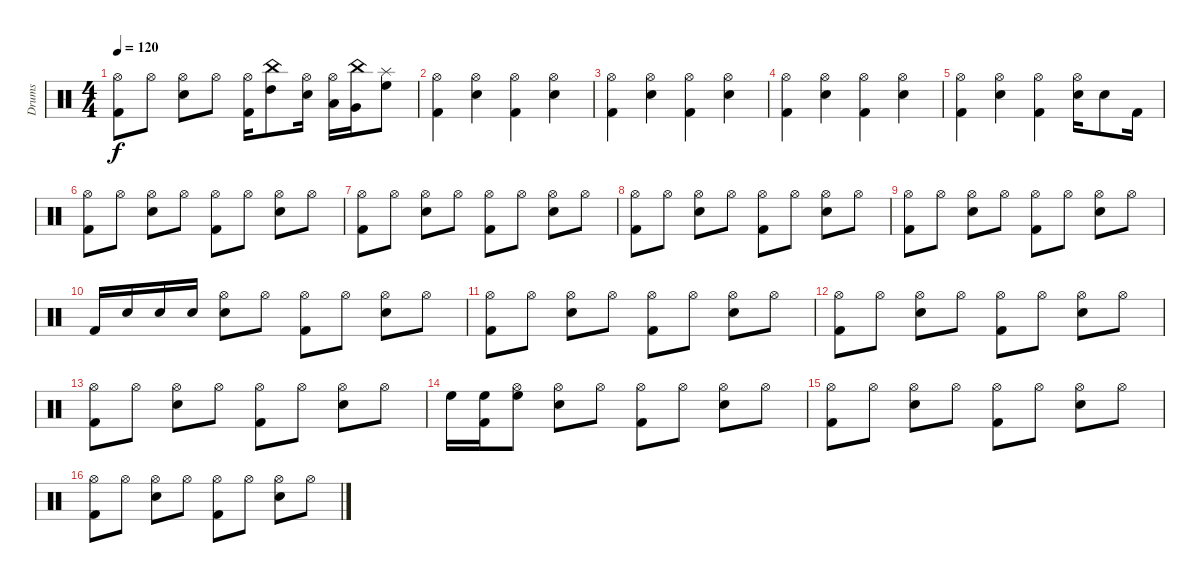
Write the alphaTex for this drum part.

\track ("Drums" "Drums") {instrument percussion}
\staff {score}
\articulation defaults
\ts (4 4)
\tempo 120
\clef neutral
\ks c
("Kick (hit) 2" "Hi-Hat (open)").8{dy f} "Hi-Hat (open)".8 ("Snare (hit) 2" "Hi-Hat (open)").8 "Hi-Hat (open)".8 ("Kick (hit) 2" "Hi-Hat (open)").16 ("High Tom (hit)" "China (hit)").8 ("Snare (hit) 2" "Hi-Hat (open)").16 ("Low Tom (hit)" "Hi-Hat (open)").16 ("Very Low Tom (hit)" "China (hit)").16 ("High Floor Tom (hit)" "Splash (hit)").8 |
("Kick (hit) 2" "Hi-Hat (open)").4 ("Snare (hit) 2" "Hi-Hat (open)").4 ("Kick (hit) 2" "Hi-Hat (open)").4 ("Snare (hit) 2" "Hi-Hat (open)").4 |
("Kick (hit) 2" "Hi-Hat (open)").4 ("Snare (hit) 2" "Hi-Hat (open)").4 ("Kick (hit) 2" "Hi-Hat (open)").4 ("Snare (hit) 2" "Hi-Hat (open)").4 |
("Kick (hit) 2" "Hi-Hat (open)").4 ("Snare (hit) 2" "Hi-Hat (open)").4 ("Kick (hit) 2" "Hi-Hat (open)").4 ("Snare (hit) 2" "Hi-Hat (open)").4 |
("Kick (hit) 2" "Hi-Hat (open)").4 ("Snare (hit) 2" "Hi-Hat (open)").4 ("Kick (hit) 2" "Hi-Hat (open)").4 ("Snare (hit) 2" "Hi-Hat (open)").16 "Snare (hit) 2".8 "Kick (hit) 2".16 |
("Kick (hit) 2" "Hi-Hat (open)").8 "Hi-Hat (open)".8 ("Snare (hit) 2" "Hi-Hat (open)").8 "Hi-Hat (open)".8 ("Kick (hit) 2" "Hi-Hat (open)").8 "Hi-Hat (open)".8 ("Snare (hit) 2" "Hi-Hat (open)").8 "Hi-Hat (open)".8 |
("Kick (hit) 2" "Hi-Hat (open)").8 "Hi-Hat (open)".8 ("Snare (hit) 2" "Hi-Hat (open)").8 "Hi-Hat (open)".8 ("Kick (hit) 2" "Hi-Hat (open)").8 "Hi-Hat (open)".8 ("Snare (hit) 2" "Hi-Hat (open)").8 "Hi-Hat (open)".8 |
("Kick (hit) 2" "Hi-Hat (open)").8 "Hi-Hat (open)".8 ("Snare (hit) 2" "Hi-Hat (open)").8 "Hi-Hat (open)".8 ("Kick (hit) 2" "Hi-Hat (open)").8 "Hi-Hat (open)".8 ("Snare (hit) 2" "Hi-Hat (open)").8 "Hi-Hat (open)".8 |
("Kick (hit) 2" "Hi-Hat (open)").8 "Hi-Hat (open)".8 ("Snare (hit) 2" "Hi-Hat (open)").8 "Hi-Hat (open)".8 ("Kick (hit) 2" "Hi-Hat (open)").8 "Hi-Hat (open)".8 ("Snare (hit) 2" "Hi-Hat (open)").8 "Hi-Hat (open)".8 |
"Kick (hit) 2".16 "Snare (hit) 2".16 "Snare (hit) 2".16 "Snare (hit) 2".16 ("Snare (hit) 2" "Hi-Hat (open)").8 "Hi-Hat (open)".8 ("Kick (hit) 2" "Hi-Hat (open)").8 "Hi-Hat (open)".8 ("Snare (hit) 2" "Hi-Hat (open)").8 "Hi-Hat (open)".8 |
("Kick (hit) 2" "Hi-Hat (open)").8 "Hi-Hat (open)".8 ("Snare (hit) 2" "Hi-Hat (open)").8 "Hi-Hat (open)".8 ("Kick (hit) 2" "Hi-Hat (open)").8 "Hi-Hat (open)".8 ("Snare (hit) 2" "Hi-Hat (open)").8 "Hi-Hat (open)".8 |
("Kick (hit) 2" "Hi-Hat (open)").8 "Hi-Hat (open)".8 ("Snare (hit) 2" "Hi-Hat (open)").8 "Hi-Hat (open)".8 ("Kick (hit) 2" "Hi-Hat (open)").8 "Hi-Hat (open)".8 ("Snare (hit) 2" "Hi-Hat (open)").8 "Hi-Hat (open)".8 |
("Kick (hit) 2" "Hi-Hat (open)").8 "Hi-Hat (open)".8 ("Snare (hit) 2" "Hi-Hat (open)").8 "Hi-Hat (open)".8 ("Kick (hit) 2" "Hi-Hat (open)").8 "Hi-Hat (open)".8 ("Snare (hit) 2" "Hi-Hat (open)").8 "Hi-Hat (open)".8 |
"High Floor Tom (hit)".16 ("Kick (hit) 2" "High Floor Tom (hit)").16 ("Hi-Hat (open)" "High Floor Tom (hit)").8 ("Snare (hit) 2" "Hi-Hat (open)").8 "Hi-Hat (open)".8 ("Kick (hit) 2" "Hi-Hat (open)").8 "Hi-Hat (open)".8 ("Snare (hit) 2" "Hi-Hat (open)").8 "Hi-Hat (open)".8 |
("Kick (hit) 2" "Hi-Hat (open)").8 "Hi-Hat (open)".8 ("Snare (hit) 2" "Hi-Hat (open)").8 "Hi-Hat (open)".8 ("Kick (hit) 2" "Hi-Hat (open)").8 "Hi-Hat (open)".8 ("Snare (hit) 2" "Hi-Hat (open)").8 "Hi-Hat (open)".8 |
("Kick (hit) 2" "Hi-Hat (open)").8 "Hi-Hat (open)".8 ("Snare (hit) 2" "Hi-Hat (open)").8 "Hi-Hat (open)".8 ("Kick (hit) 2" "Hi-Hat (open)").8 "Hi-Hat (open)".8 ("Snare (hit) 2" "Hi-Hat (open)").8 "Hi-Hat (open)".8
